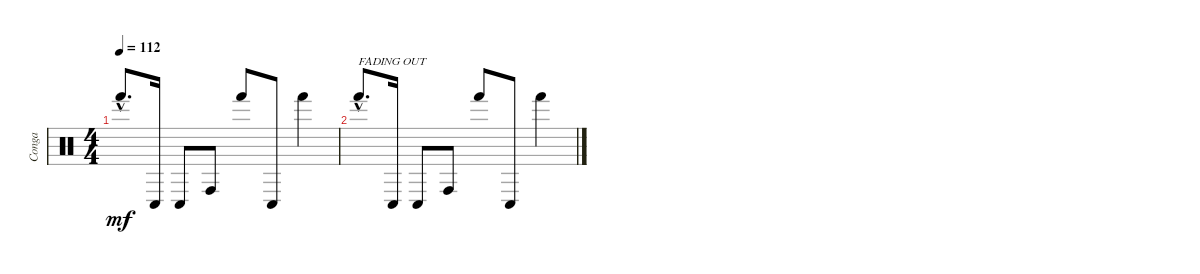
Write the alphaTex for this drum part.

\track ("Conga" "Conga") {instrument percussion}
\staff {score}
\articulation defaults
\ts (4 4)
\tempo 112
\clef neutral
\ks c "Hand (hit)"{hac}.8{d dy mf} "Conga low (hit)".16 "Conga low (hit)".8 "Conga high (hit)".8 "Hand (hit)".8 "Conga low (hit)".8 "Hand (hit)".4
|
"Hand (hit)"{hac}.8{d txt "FADING OUT"} "Conga low (hit)".16 "Conga low (hit)".8 "Conga high (hit)".8 "Hand (hit)".8 "Conga low (hit)".8 "Hand (hit)".4
